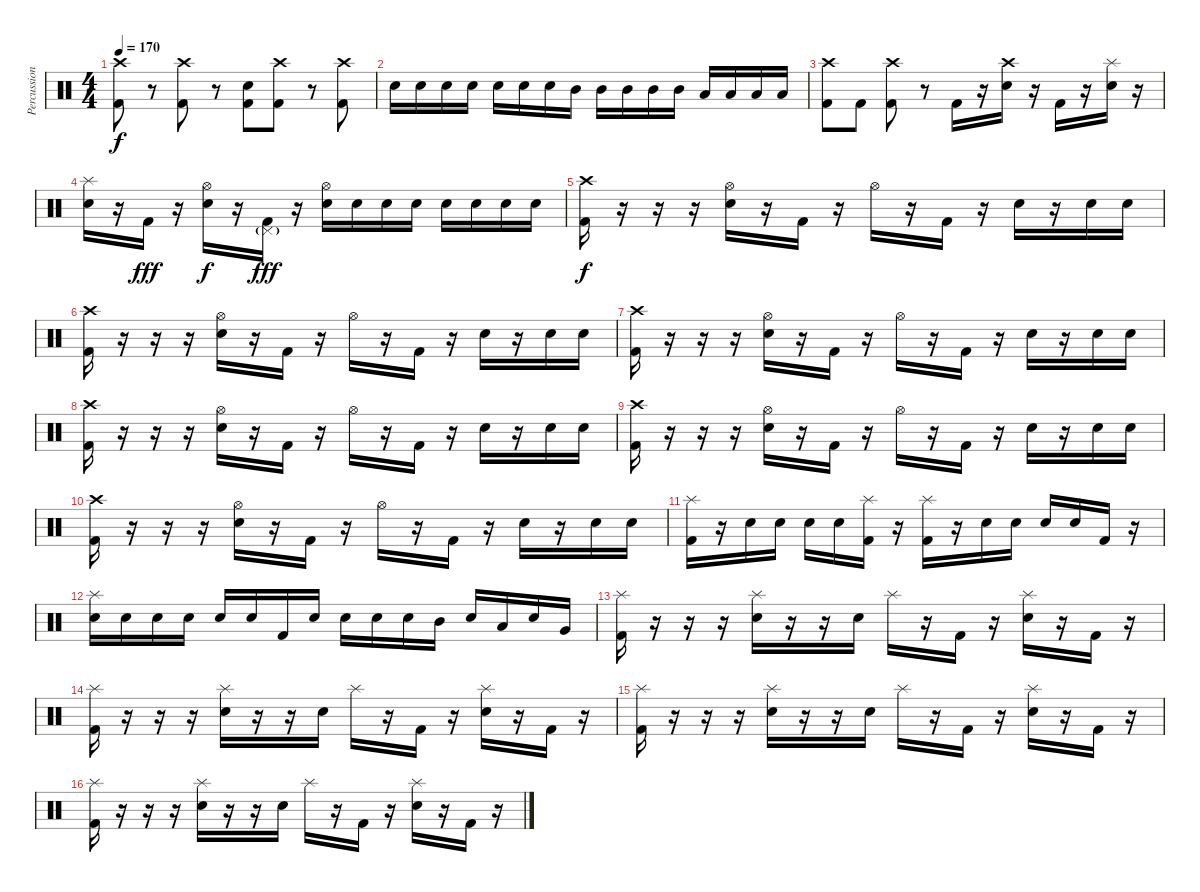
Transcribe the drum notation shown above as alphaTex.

\track ("Percussion" "Percussion") {instrument percussion}
\staff {score}
\articulation defaults
\ts (4 4)
\tempo 170
\clef neutral
\ks c
("Crash high (hit)" "Kick (hit) 2").8{dy f} r.8 ("Crash high (hit)" "Kick (hit) 2").8 r.8 ("Electric Snare (hit)" "Kick (hit) 2").8 ("Crash high (hit)" "Kick (hit) 2").8 r.8 ("Crash high (hit)" "Kick (hit) 2").8 |
"Electric Snare (hit)".16 "Electric Snare (hit)".16 "Electric Snare (hit)".16 "Electric Snare (hit)".16 "Electric Snare (hit)".16 "Electric Snare (hit)".16 "Electric Snare (hit)".16 "Mid Tom (hit)".16 "Mid Tom (hit)".16 "Mid Tom (hit)".16 "Mid Tom (hit)".16 "Mid Tom (hit)".16 "Low Tom (hit)".16 "Low Tom (hit)".16 "Low Tom (hit)".16 "Low Tom (hit)".16 |
("Crash high (hit)" "Kick (hit) 2").8 "Kick (hit) 2".8 ("Crash high (hit)" "Kick (hit) 2").8 r.8 "Kick (hit) 2".16 r.16 ("Crash high (hit)" "Electric Snare (hit)").16 r.16 "Kick (hit) 2".16 r.16 ("Splash (hit)" "Electric Snare (hit)").16 r.16 |
("Splash (hit)" "Electric Snare (hit)").16 r.16 "Kick (hit) 2".16{dy fff} r.16 ("Hi-Hat (open)" "Electric Snare (hit)").16{dy f} r.16 ("Pedal Hi-Hat (hit)"{g} "Kick (hit) 2").16{dy fff} r.16 ("Hi-Hat (open)" "Electric Snare (hit)").16 "Electric Snare (hit)".16 "Electric Snare (hit)".16 "Electric Snare (hit)".16 "Electric Snare (hit)".16 "Electric Snare (hit)".16 "Electric Snare (hit)".16 "Electric Snare (hit)".16 |
("Crash high (hit)" "Kick (hit) 2").16{dy f} r.16 r.16 r.16 ("Hi-Hat (open)" "Electric Snare (hit)").16 r.16 "Kick (hit) 2".16 r.16 "Hi-Hat (open)".16 r.16 "Kick (hit) 2".16 r.16 "Electric Snare (hit)".16 r.16 "Electric Snare (hit)".16 "Electric Snare (hit)".16 |
("Crash high (hit)" "Kick (hit) 2").16 r.16 r.16 r.16 ("Hi-Hat (open)" "Electric Snare (hit)").16 r.16 "Kick (hit) 2".16 r.16 "Hi-Hat (open)".16 r.16 "Kick (hit) 2".16 r.16 "Electric Snare (hit)".16 r.16 "Electric Snare (hit)".16 "Electric Snare (hit)".16 |
("Crash high (hit)" "Kick (hit) 2").16 r.16 r.16 r.16 ("Hi-Hat (open)" "Electric Snare (hit)").16 r.16 "Kick (hit) 2".16 r.16 "Hi-Hat (open)".16 r.16 "Kick (hit) 2".16 r.16 "Electric Snare (hit)".16 r.16 "Electric Snare (hit)".16 "Electric Snare (hit)".16 |
("Crash high (hit)" "Kick (hit) 2").16 r.16 r.16 r.16 ("Hi-Hat (open)" "Electric Snare (hit)").16 r.16 "Kick (hit) 2".16 r.16 "Hi-Hat (open)".16 r.16 "Kick (hit) 2".16 r.16 "Electric Snare (hit)".16 r.16 "Electric Snare (hit)".16 "Electric Snare (hit)".16 |
("Crash high (hit)" "Kick (hit) 2").16 r.16 r.16 r.16 ("Hi-Hat (open)" "Electric Snare (hit)").16 r.16 "Kick (hit) 2".16 r.16 "Hi-Hat (open)".16 r.16 "Kick (hit) 2".16 r.16 "Electric Snare (hit)".16 r.16 "Electric Snare (hit)".16 "Electric Snare (hit)".16 |
("Crash high (hit)" "Kick (hit) 2").16 r.16 r.16 r.16 ("Hi-Hat (open)" "Electric Snare (hit)").16 r.16 "Kick (hit) 2".16 r.16 "Hi-Hat (open)".16 r.16 "Kick (hit) 2".16 r.16 "Electric Snare (hit)".16 r.16 "Electric Snare (hit)".16 "Electric Snare (hit)".16 |
("Splash (hit)" "Kick (hit) 2").16 r.16 "Electric Snare (hit)".16 "Electric Snare (hit)".16 "Electric Snare (hit)".16 "Electric Snare (hit)".16 ("Splash (hit)" "Kick (hit) 2").16 r.16 ("Splash (hit)" "Kick (hit) 2").16 r.16 "Electric Snare (hit)".16 "Electric Snare (hit)".16 "Electric Snare (hit)".16 "Electric Snare (hit)".16 "Kick (hit) 2".16 r.16 |
("Splash (hit)" "Electric Snare (hit)").16 "Electric Snare (hit)".16 "Electric Snare (hit)".16 "Electric Snare (hit)".16 "Electric Snare (hit)".16 "Electric Snare (hit)".16 "Kick (hit) 2".16 "Electric Snare (hit)".16 "Electric Snare (hit)".16 "Electric Snare (hit)".16 "Electric Snare (hit)".16 "Mid Tom (hit)".16 "Electric Snare (hit)".16 "Low Tom (hit)".16 "Electric Snare (hit)".16 "Very Low Tom (hit)".16 |
("Splash (hit)" "Kick (hit) 2").16 r.16 r.16 r.16 ("Splash (hit)" "Electric Snare (hit)").16 r.16 r.16 "Electric Snare (hit)".16 "Splash (hit)".16 r.16 "Kick (hit) 2".16 r.16 ("Splash (hit)" "Electric Snare (hit)").16 r.16 "Kick (hit) 2".16 r.16 |
("Splash (hit)" "Kick (hit) 2").16 r.16 r.16 r.16 ("Splash (hit)" "Electric Snare (hit)").16 r.16 r.16 "Electric Snare (hit)".16 "Splash (hit)".16 r.16 "Kick (hit) 2".16 r.16 ("Splash (hit)" "Electric Snare (hit)").16 r.16 "Kick (hit) 2".16 r.16 |
("Splash (hit)" "Kick (hit) 2").16 r.16 r.16 r.16 ("Splash (hit)" "Electric Snare (hit)").16 r.16 r.16 "Electric Snare (hit)".16 "Splash (hit)".16 r.16 "Kick (hit) 2".16 r.16 ("Splash (hit)" "Electric Snare (hit)").16 r.16 "Kick (hit) 2".16 r.16 |
("Splash (hit)" "Kick (hit) 2").16 r.16 r.16 r.16 ("Splash (hit)" "Electric Snare (hit)").16 r.16 r.16 "Electric Snare (hit)".16 "Splash (hit)".16 r.16 "Kick (hit) 2".16 r.16 ("Splash (hit)" "Electric Snare (hit)").16 r.16 "Kick (hit) 2".16 r.16
